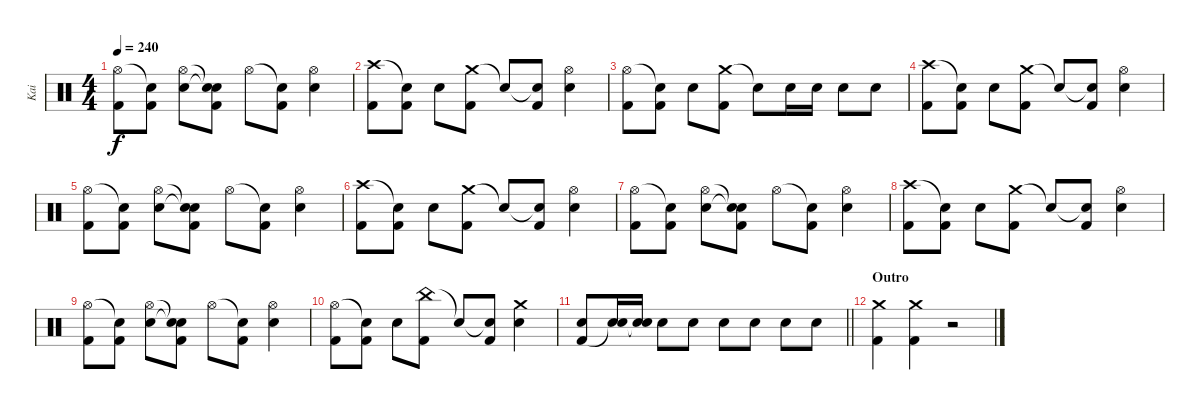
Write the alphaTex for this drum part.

\track ("Kai" "Kai") {instrument percussion}
\staff {score}
\articulation defaults
\ts (4 4)
\tempo 240
\clef neutral
\ks c
("Hi-Hat (open)" "Kick (hit) 2").8{dy f} ("Snare (hit)"{t} "Kick (hit) 2").8 ("Hi-Hat (open)" "Snare (hit) 2").8 ("Snare (hit)"{t} "Snare (hit)"{t} "Kick (hit) 2").8 "Hi-Hat (open)".8 ("Snare (hit)"{t} "Kick (hit) 2").8 ("Hi-Hat (open)" "Snare (hit) 2").4 |
("Crash high (hit)" "Kick (hit) 2").8 ("Snare (hit)"{t} "Kick (hit) 2").8 "Snare (hit) 2".8 ("Crash medium (hit)" "Kick (hit) 2").8 "Snare (hit)"{t}.8 ("Snare (hit)"{t} "Kick (hit) 2").8 ("Hi-Hat (open)" "Snare (hit) 2").4 |
("Hi-Hat (open)" "Kick (hit) 2").8 ("Snare (hit)"{t} "Kick (hit) 2").8 "Snare (hit) 2".8 ("Crash medium (hit)" "Kick (hit) 2").8 "Snare (hit)"{t}.8 "Snare (hit) 2".16 "Snare (hit) 2".16 "Snare (hit) 2".8 "Snare (hit) 2".8 |
("Crash high (hit)" "Kick (hit) 2").8 ("Snare (hit)"{t} "Kick (hit) 2").8 "Snare (hit) 2".8 ("Crash medium (hit)" "Kick (hit) 2").8 "Snare (hit)"{t}.8 ("Snare (hit)"{t} "Kick (hit) 2").8 ("Hi-Hat (open)" "Snare (hit) 2").4 |
("Hi-Hat (open)" "Kick (hit) 2").8 ("Snare (hit)"{t} "Kick (hit) 2").8 ("Hi-Hat (open)" "Snare (hit) 2").8 ("Snare (hit)"{t} "Snare (hit)"{t} "Kick (hit) 2").8 "Hi-Hat (open)".8 ("Snare (hit)"{t} "Kick (hit) 2").8 ("Hi-Hat (open)" "Snare (hit) 2").4 |
("Crash high (hit)" "Kick (hit) 2").8 ("Snare (hit)"{t} "Kick (hit) 2").8 "Snare (hit) 2".8 ("Crash medium (hit)" "Kick (hit) 2").8 "Snare (hit)"{t}.8 ("Snare (hit)"{t} "Kick (hit) 2").8 ("Hi-Hat (open)" "Snare (hit) 2").4 |
("Hi-Hat (open)" "Kick (hit) 2").8 ("Snare (hit)"{t} "Kick (hit) 2").8 ("Hi-Hat (open)" "Snare (hit) 2").8 ("Snare (hit)"{t} "Snare (hit)"{t} "Kick (hit) 2").8 "Hi-Hat (open)".8 ("Snare (hit)"{t} "Kick (hit) 2").8 ("Hi-Hat (open)" "Snare (hit) 2").4 |
("Crash high (hit)" "Kick (hit) 2").8 ("Snare (hit)"{t} "Kick (hit) 2").8 "Snare (hit) 2".8 ("Crash medium (hit)" "Kick (hit) 2").8 "Snare (hit)"{t}.8 ("Snare (hit)"{t} "Kick (hit) 2").8 ("Hi-Hat (open)" "Snare (hit) 2").4 |
("Hi-Hat (open)" "Kick (hit) 2").8 ("Snare (hit)"{t} "Kick (hit) 2").8 ("Hi-Hat (open)" "Snare (hit) 2").8 ("Snare (hit)"{t} "Snare (hit)"{t} "Kick (hit) 2").8 "Hi-Hat (open)".8 ("Snare (hit)"{t} "Kick (hit) 2").8 ("Hi-Hat (open)" "Snare (hit) 2").4 |
("Hi-Hat (open)" "Kick (hit) 2").8 ("Snare (hit)"{t} "Kick (hit) 2").8 "Snare (hit) 2".8 ("China (hit)" "Kick (hit) 2").8 "Snare (hit)"{t}.8 ("Snare (hit)"{t} "Kick (hit) 2").8 ("Crash medium (hit)" "Snare (hit) 2").4 |
\barLineRight lightlight
("Snare (hit) 2" "Kick (hit) 2").8 ("Snare (hit) 2" "Snare (hit)"{t}).16 ("Snare (hit) 2" "Snare (hit)"{t}).16 "Snare (hit) 2".8 "Snare (hit) 2".8 "Snare (hit) 2".8 "Snare (hit) 2".8 "Snare (hit) 2".8 "Snare (hit) 2".8 |
\section ("" "Outro")
("Crash medium (hit)" "Kick (hit) 2").4 ("Crash medium (hit)" "Kick (hit) 2").4 r.2
